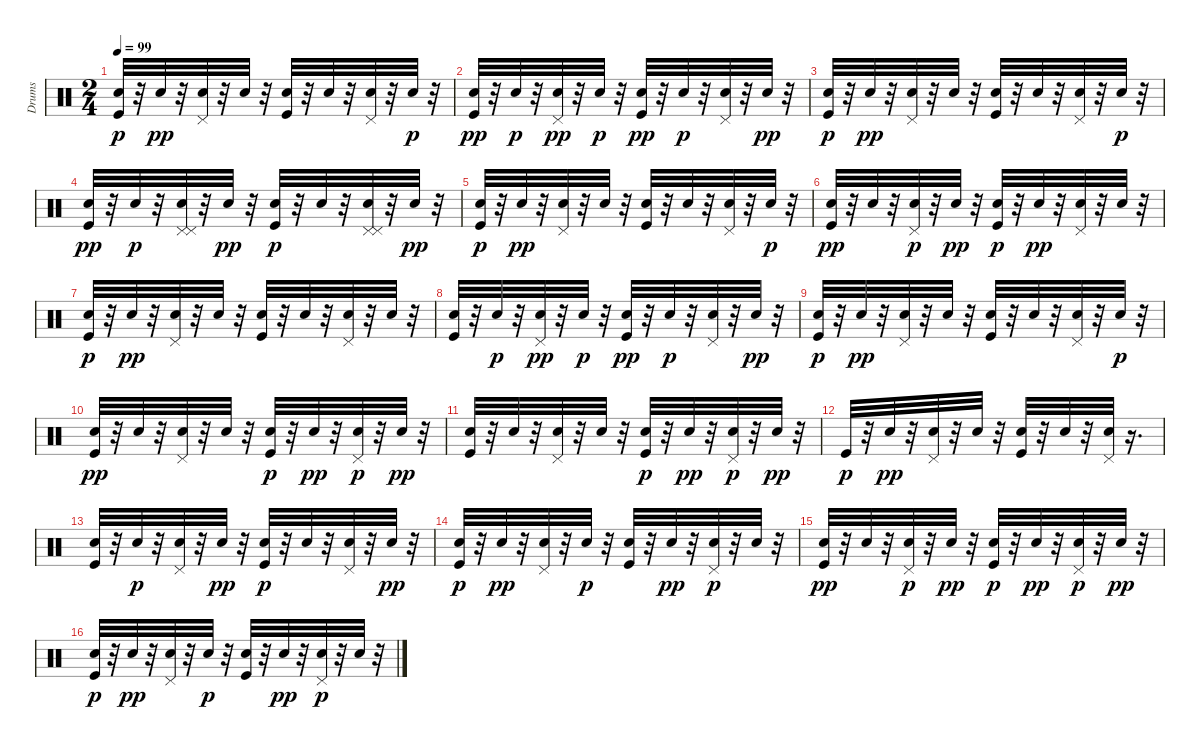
\track ("Drums" "Drums") {instrument percussion}
\staff {score}
\articulation defaults
\ts (2 4)
\tempo 99
\clef neutral
\ks c
("Hand Clap (hit)" "Kick (hit)").32{dy p} r.32 "Snare (hit) 2".32{dy pp} r.32 ("Pedal Hi-Hat (hit)" "Snare (hit) 2").32 r.32 "Hand Clap (hit)".32 r.32 ("Kick (hit)" "Hand Clap (hit)").32 r.32 "Snare (hit) 2".32 r.32 ("Pedal Hi-Hat (hit)" "Hand Clap (hit)").32 r.32 "Snare (hit) 2".32{dy p} r.32 |
("Kick (hit)" "Hand Clap (hit)").32{dy pp} r.32 "Snare (hit) 2".32{dy p} r.32 ("Pedal Hi-Hat (hit)" "Snare (hit) 2").32{dy pp} r.32 "Hand Clap (hit)".32{dy p} r.32 ("Kick (hit)" "Snare (hit) 2").32{dy pp} r.32 "Snare (hit) 2".32{dy p} r.32 ("Pedal Hi-Hat (hit)" "Snare (hit) 2").32 r.32 "Snare (hit) 2".32{dy pp} r.32 |
("Hand Clap (hit)" "Kick (hit)").32{dy p} r.32 "Snare (hit) 2".32{dy pp} r.32 ("Pedal Hi-Hat (hit)" "Snare (hit) 2").32 r.32 "Hand Clap (hit)".32 r.32 ("Kick (hit)" "Hand Clap (hit)").32 r.32 "Snare (hit) 2".32 r.32 ("Pedal Hi-Hat (hit)" "Hand Clap (hit)").32 r.32 "Snare (hit) 2".32{dy p} r.32 |
("Kick (hit)" "Hand Clap (hit)").32{dy pp} r.32 "Snare (hit) 2".32{dy p} r.32 ("Pedal Hi-Hat (hit)" "Pedal Hi-Hat (hit)" "Snare (hit) 2").32 r.32 "Snare (hit) 2".32{dy pp} r.32 ("Hand Clap (hit)" "Kick (hit)").32{dy p} r.32 "Snare (hit) 2".32 r.32 ("Pedal Hi-Hat (hit)" "Pedal Hi-Hat (hit)" "Snare (hit) 2").32 r.32 "Snare (hit) 2".32{dy pp} r.32 |
("Hand Clap (hit)" "Kick (hit)").32{dy p} r.32 "Snare (hit) 2".32{dy pp} r.32 ("Pedal Hi-Hat (hit)" "Snare (hit) 2").32 r.32 "Hand Clap (hit)".32 r.32 ("Kick (hit)" "Hand Clap (hit)").32 r.32 "Snare (hit) 2".32 r.32 ("Pedal Hi-Hat (hit)" "Hand Clap (hit)").32 r.32 "Snare (hit) 2".32{dy p} r.32 |
("Kick (hit)" "Hand Clap (hit)").32{dy pp} r.32 "Snare (hit) 2".32 r.32 ("Pedal Hi-Hat (hit)" "Snare (hit) 2").32{dy p} r.32 "Hand Clap (hit)".32{dy pp} r.32 ("Hand Clap (hit)" "Kick (hit)").32{dy p} r.32 "Snare (hit) 2".32{dy pp} r.32 ("Pedal Hi-Hat (hit)" "Hand Clap (hit)").32 r.32 "Snare (hit) 2".32 r.32 |
("Hand Clap (hit)" "Kick (hit)").32{dy p} r.32 "Snare (hit) 2".32{dy pp} r.32 ("Pedal Hi-Hat (hit)" "Snare (hit) 2").32 r.32 "Snare (hit) 2".32 r.32 ("Kick (hit)" "Hand Clap (hit)").32 r.32 "Snare (hit) 2".32 r.32 ("Hand Clap (hit)" "Pedal Hi-Hat (hit)").32 r.32 "Snare (hit) 2".32 r.32 |
("Kick (hit)" "Hand Clap (hit)").32 r.32 "Snare (hit) 2".32{dy p} r.32 ("Pedal Hi-Hat (hit)" "Snare (hit) 2").32{dy pp} r.32 "Hand Clap (hit)".32{dy p} r.32 ("Kick (hit)" "Snare (hit) 2").32{dy pp} r.32 "Snare (hit) 2".32{dy p} r.32 ("Pedal Hi-Hat (hit)" "Snare (hit) 2").32 r.32 "Snare (hit) 2".32{dy pp} r.32 |
("Hand Clap (hit)" "Kick (hit)").32{dy p} r.32 "Snare (hit) 2".32{dy pp} r.32 ("Pedal Hi-Hat (hit)" "Snare (hit) 2").32 r.32 "Hand Clap (hit)".32 r.32 ("Kick (hit)" "Hand Clap (hit)").32 r.32 "Snare (hit) 2".32 r.32 ("Pedal Hi-Hat (hit)" "Hand Clap (hit)").32 r.32 "Snare (hit) 2".32{dy p} r.32 |
("Kick (hit)" "Hand Clap (hit)").32{dy pp} r.32 "Snare (hit) 2".32 r.32 ("Pedal Hi-Hat (hit)" "Snare (hit) 2").32 r.32 "Hand Clap (hit)".32 r.32 ("Kick (hit)" "Snare (hit) 2").32{dy p} r.32 "Snare (hit) 2".32{dy pp} r.32 ("Pedal Hi-Hat (hit)" "Snare (hit) 2").32{dy p} r.32 "Snare (hit) 2".32{dy pp} r.32 |
("Kick (hit)" "Hand Clap (hit)").32 r.32 "Snare (hit) 2".32 r.32 ("Pedal Hi-Hat (hit)" "Snare (hit) 2").32 r.32 "Hand Clap (hit)".32 r.32 ("Kick (hit)" "Snare (hit) 2").32{dy p} r.32 "Snare (hit) 2".32{dy pp} r.32 ("Pedal Hi-Hat (hit)" "Snare (hit) 2").32{dy p} r.32 "Snare (hit) 2".32{dy pp} r.32 |
"Kick (hit)".32{dy p} r.32 "Snare (hit) 2".32{dy pp} r.32 ("Pedal Hi-Hat (hit)" "Snare (hit) 2").32 r.32 "Hand Clap (hit)".32 r.32 ("Kick (hit)" "Hand Clap (hit)").32 r.32 "Snare (hit) 2".32 r.32 ("Hand Clap (hit)" "Pedal Hi-Hat (hit)").32 r.16{d} |
("Kick (hit)" "Hand Clap (hit)").32 r.32 "Snare (hit) 2".32{dy p} r.32 ("Pedal Hi-Hat (hit)" "Snare (hit) 2").32 r.32 "Snare (hit) 2".32{dy pp} r.32 ("Hand Clap (hit)" "Kick (hit)").32{dy p} r.32 "Snare (hit) 2".32 r.32 ("Pedal Hi-Hat (hit)" "Snare (hit) 2").32 r.32 "Hand Clap (hit)".32{dy pp} r.32 |
("Hand Clap (hit)" "Kick (hit)").32{dy p} r.32 "Snare (hit) 2".32{dy pp} r.32 ("Pedal Hi-Hat (hit)" "Snare (hit) 2").32 r.32 "Snare (hit) 2".32{dy p} r.32 ("Hand Clap (hit)" "Kick (hit)").32 r.32 "Hand Clap (hit)".32{dy pp} r.32 ("Pedal Hi-Hat (hit)" "Snare (hit) 2").32{dy p} r.32 "Snare (hit) 2".32 r.32 |
("Kick (hit)" "Hand Clap (hit)").32{dy pp} r.32 "Snare (hit) 2".32 r.32 ("Pedal Hi-Hat (hit)" "Snare (hit) 2").32{dy p} r.32 "Snare (hit) 2".32{dy pp} r.32 ("Hand Clap (hit)" "Kick (hit)").32{dy p} r.32 "Snare (hit) 2".32{dy pp} r.32 ("Pedal Hi-Hat (hit)" "Snare (hit) 2").32{dy p} r.32 "Snare (hit) 2".32{dy pp} r.32 |
("Hand Clap (hit)" "Kick (hit)").32{dy p} r.32 "Snare (hit) 2".32{dy pp} r.32 ("Pedal Hi-Hat (hit)" "Snare (hit) 2").32 r.32 "Snare (hit) 2".32{dy p} r.32 ("Hand Clap (hit)" "Kick (hit)").32 r.32 "Hand Clap (hit)".32{dy pp} r.32 ("Pedal Hi-Hat (hit)" "Snare (hit) 2").32{dy p} r.32 "Snare (hit) 2".32 r.32
